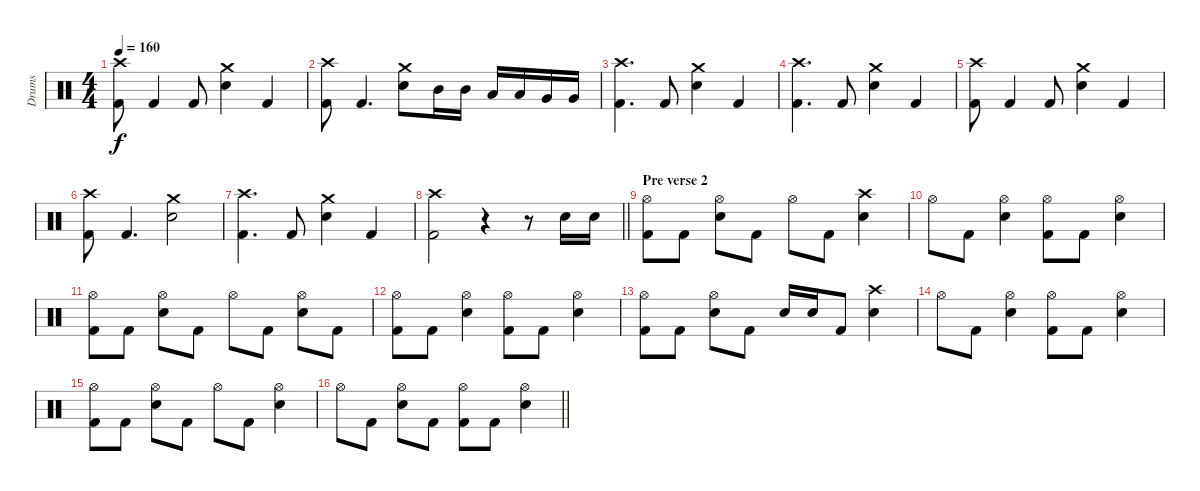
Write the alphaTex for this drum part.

\track ("Drums" "Drums") {instrument percussion}
\staff {score}
\articulation defaults
\ts (4 4)
\tempo 160
\clef neutral
\ks c
("Kick (hit) 2" "Crash high (hit)").8{dy f} "Kick (hit) 2".4 "Kick (hit) 2".8 ("Electric Snare (hit)" "Crash medium (hit)").4 "Kick (hit) 2".4 |
("Kick (hit) 2" "Crash high (hit)").8 "Kick (hit) 2".4{d} ("Electric Snare (hit)" "Crash medium (hit)").8 "Mid Tom (hit)".16 "Mid Tom (hit)".16 "Low Tom (hit)".16 "Low Tom (hit)".16 "Very Low Tom (hit)".16 "Very Low Tom (hit)".16 |
("Kick (hit) 2" "Crash high (hit)").4{d} "Kick (hit) 2".8 ("Electric Snare (hit)" "Crash medium (hit)").4 "Kick (hit) 2".4 |
("Kick (hit) 2" "Crash high (hit)").4{d} "Kick (hit) 2".8 ("Electric Snare (hit)" "Crash medium (hit)").4 "Kick (hit) 2".4 |
("Kick (hit) 2" "Crash high (hit)").8 "Kick (hit) 2".4 "Kick (hit) 2".8 ("Electric Snare (hit)" "Crash medium (hit)").4 "Kick (hit) 2".4 |
("Kick (hit) 2" "Crash high (hit)").8 "Kick (hit) 2".4{d} ("Electric Snare (hit)" "Crash medium (hit)").2 |
("Kick (hit) 2" "Crash high (hit)").4{d} "Kick (hit) 2".8 ("Electric Snare (hit)" "Crash medium (hit)").4 "Kick (hit) 2".4 |
\barLineRight lightlight
("Kick (hit) 2" "Crash high (hit)").2 r.4 r.8 "Electric Snare (hit)".16 "Electric Snare (hit)".16 |
\section ("" "Pre verse 2")
("Kick (hit) 2" "Hi-Hat (open)").8 "Kick (hit) 2".8 ("Electric Snare (hit)" "Hi-Hat (open)").8 "Kick (hit) 2".8 "Hi-Hat (open)".8 "Kick (hit) 2".8 ("Electric Snare (hit)" "Crash high (hit)").4 |
"Hi-Hat (open)".8 "Kick (hit) 2".8 ("Electric Snare (hit)" "Hi-Hat (open)").4 ("Kick (hit) 2" "Hi-Hat (open)").8 "Kick (hit) 2".8 ("Electric Snare (hit)" "Hi-Hat (open)").4 |
("Kick (hit) 2" "Hi-Hat (open)").8 "Kick (hit) 2".8 ("Electric Snare (hit)" "Hi-Hat (open)").8 "Kick (hit) 2".8 "Hi-Hat (open)".8 "Kick (hit) 2".8 ("Electric Snare (hit)" "Hi-Hat (open)").8 "Kick (hit) 2".8 |
("Kick (hit) 2" "Hi-Hat (open)").8 "Kick (hit) 2".8 ("Electric Snare (hit)" "Hi-Hat (open)").4 ("Kick (hit) 2" "Hi-Hat (open)").8 "Kick (hit) 2".8 ("Electric Snare (hit)" "Hi-Hat (open)").4 |
("Kick (hit) 2" "Hi-Hat (open)").8 "Kick (hit) 2".8 ("Electric Snare (hit)" "Hi-Hat (open)").8 "Kick (hit) 2".8 "Electric Snare (hit)".16 "Electric Snare (hit)".16 "Kick (hit) 2".8 ("Electric Snare (hit)" "Crash high (hit)").4 |
"Hi-Hat (open)".8 "Kick (hit) 2".8 ("Electric Snare (hit)" "Hi-Hat (open)").4 ("Kick (hit) 2" "Hi-Hat (open)").8 "Kick (hit) 2".8 ("Electric Snare (hit)" "Hi-Hat (open)").4 |
("Kick (hit) 2" "Hi-Hat (open)").8 "Kick (hit) 2".8 ("Electric Snare (hit)" "Hi-Hat (open)").8 "Kick (hit) 2".8 "Hi-Hat (open)".8 "Kick (hit) 2".8 ("Electric Snare (hit)" "Hi-Hat (open)").4 |
\barLineRight lightlight "Hi-Hat (open)".8 "Kick (hit) 2".8
("Electric Snare (hit)" "Hi-Hat (open)").8 "Kick (hit) 2".8 ("Kick (hit) 2" "Hi-Hat (open)").8 "Kick (hit) 2".8 ("Electric Snare (hit)" "Hi-Hat (open)").4
